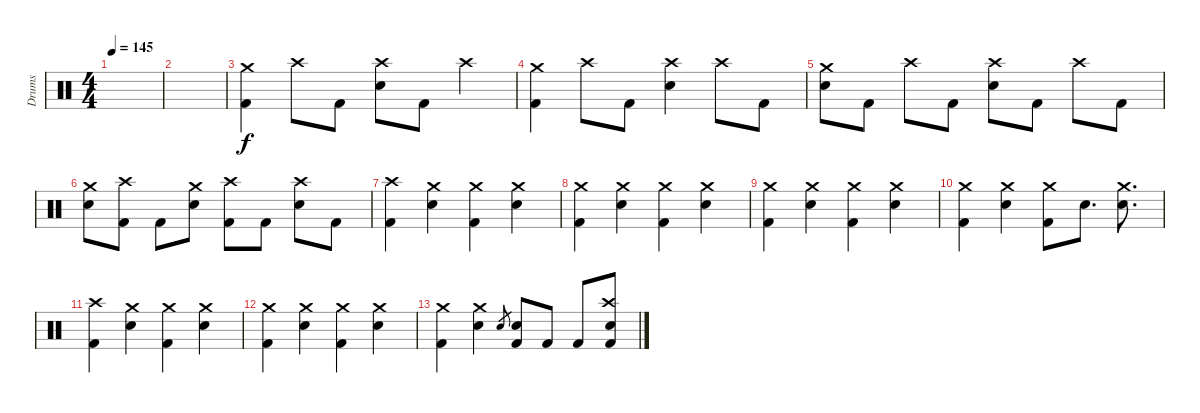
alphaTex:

\track ("Drums" "Drums") {instrument percussion}
\staff {score}
\articulation defaults
\ts (4 4)
\tempo 145
\clef neutral
\ks c
|
|
("Crash medium (hit)" "Kick (hit) 2").4 "Crash high (hit)".8 "Kick (hit) 2".8 ("Crash high (hit)" "Electric Snare (hit)").8 "Kick (hit) 2".8 "Crash high (hit)".4 |
("Crash medium (hit)" "Kick (hit) 2").4 "Crash high (hit)".8 "Kick (hit) 2".8 ("Crash high (hit)" "Electric Snare (hit)").4 "Crash high (hit)".8 "Kick (hit) 2".8 |
("Crash medium (hit)" "Electric Snare (hit)").8 "Kick (hit) 2".8 "Crash high (hit)".8 "Kick (hit) 2".8 ("Crash high (hit)" "Electric Snare (hit)").8 "Kick (hit) 2".8 "Crash high (hit)".8 "Kick (hit) 2".8 |
("Crash medium (hit)" "Electric Snare (hit)").8 ("Crash high (hit)" "Kick (hit) 2").8 "Kick (hit) 2".8 ("Crash medium (hit)" "Electric Snare (hit)").8 ("Crash high (hit)" "Kick (hit) 2").8 "Kick (hit) 2".8 ("Crash high (hit)" "Electric Snare (hit)").8 "Kick (hit) 2".8 |
("Crash high (hit)" "Kick (hit) 2").4 ("Crash medium (hit)" "Electric Snare (hit)").4 ("Crash medium (hit)" "Kick (hit) 2").4 ("Crash medium (hit)" "Electric Snare (hit)").4 |
("Crash medium (hit)" "Kick (hit) 2").4 ("Crash medium (hit)" "Electric Snare (hit)").4 ("Crash medium (hit)" "Kick (hit) 2").4 ("Crash medium (hit)" "Electric Snare (hit)").4 |
("Crash medium (hit)" "Kick (hit) 2").4 ("Crash medium (hit)" "Electric Snare (hit)").4 ("Crash medium (hit)" "Kick (hit) 2").4 ("Crash medium (hit)" "Electric Snare (hit)").4 |
("Crash medium (hit)" "Kick (hit) 2").4 ("Crash medium (hit)" "Electric Snare (hit)").4 ("Crash medium (hit)" "Kick (hit) 2").8 "Electric Snare (hit)".8{d} ("Crash medium (hit)" "Electric Snare (hit)").8{d} |
("Crash high (hit)" "Kick (hit) 2").4 ("Crash medium (hit)" "Electric Snare (hit)").4 ("Crash medium (hit)" "Kick (hit) 2").4 ("Crash medium (hit)" "Electric Snare (hit)").4 |
("Crash medium (hit)" "Kick (hit) 2").4 ("Crash medium (hit)" "Electric Snare (hit)").4 ("Crash medium (hit)" "Kick (hit) 2").4 ("Crash medium (hit)" "Electric Snare (hit)").4 |
("Crash medium (hit)" "Kick (hit) 2").4 ("Crash medium (hit)" "Electric Snare (hit)").4 "Electric Snare (hit)".8{gr} ("Electric Snare (hit)" "Kick (hit) 2").8 "Kick (hit) 2".8 "Kick (hit) 2".8 ("Crash high (hit)" "Electric Snare (hit)" "Kick (hit) 2").8
